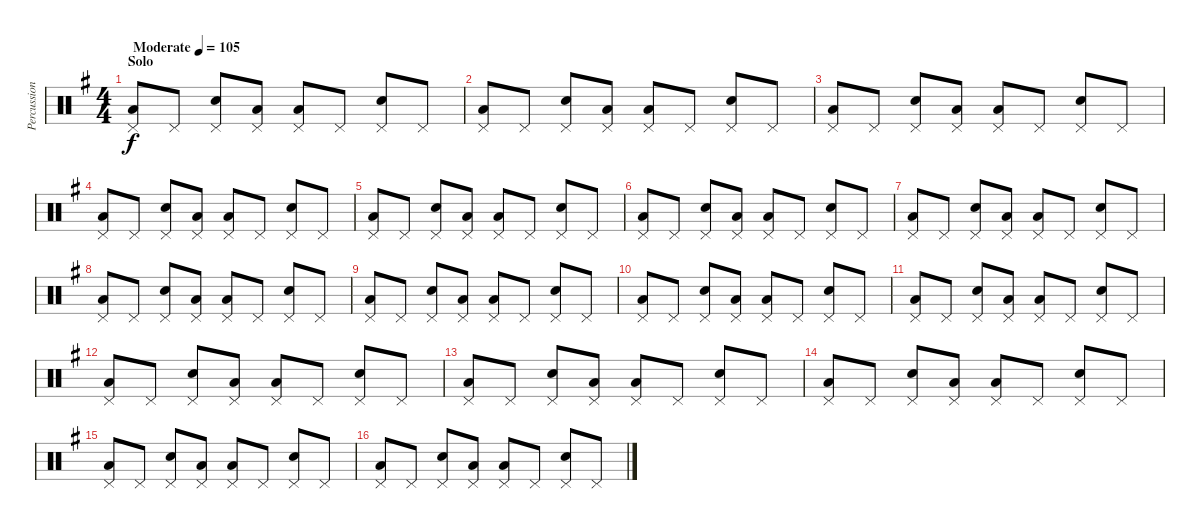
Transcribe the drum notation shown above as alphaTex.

\track ("Percussion" "Percussion") {instrument percussion}
\staff {score}
\articulation defaults
\ts (4 4)
\section ("" "Solo")
\tempo (105 "Moderate")
\clef neutral
\ks g
("Pedal Hi-Hat (hit)" "Low Floor Tom (hit)").8{dy f} "Pedal Hi-Hat (hit)".8 ("Pedal Hi-Hat (hit)" "Snare (hit) 2").8 ("Pedal Hi-Hat (hit)" "Low Floor Tom (hit)").8 ("Pedal Hi-Hat (hit)" "Low Floor Tom (hit)").8 "Pedal Hi-Hat (hit)".8 ("Pedal Hi-Hat (hit)" "Snare (hit) 2").8 "Pedal Hi-Hat (hit)".8 |
("Pedal Hi-Hat (hit)" "Low Floor Tom (hit)").8 "Pedal Hi-Hat (hit)".8 ("Pedal Hi-Hat (hit)" "Snare (hit) 2").8 ("Pedal Hi-Hat (hit)" "Low Floor Tom (hit)").8 ("Pedal Hi-Hat (hit)" "Low Floor Tom (hit)").8 "Pedal Hi-Hat (hit)".8 ("Pedal Hi-Hat (hit)" "Snare (hit) 2").8 "Pedal Hi-Hat (hit)".8 |
("Pedal Hi-Hat (hit)" "Low Floor Tom (hit)").8 "Pedal Hi-Hat (hit)".8 ("Pedal Hi-Hat (hit)" "Snare (hit) 2").8 ("Pedal Hi-Hat (hit)" "Low Floor Tom (hit)").8 ("Pedal Hi-Hat (hit)" "Low Floor Tom (hit)").8 "Pedal Hi-Hat (hit)".8 ("Pedal Hi-Hat (hit)" "Snare (hit) 2").8 "Pedal Hi-Hat (hit)".8 |
("Pedal Hi-Hat (hit)" "Low Floor Tom (hit)").8 "Pedal Hi-Hat (hit)".8 ("Pedal Hi-Hat (hit)" "Snare (hit) 2").8 ("Pedal Hi-Hat (hit)" "Low Floor Tom (hit)").8 ("Pedal Hi-Hat (hit)" "Low Floor Tom (hit)").8 "Pedal Hi-Hat (hit)".8 ("Pedal Hi-Hat (hit)" "Snare (hit) 2").8 "Pedal Hi-Hat (hit)".8 |
("Pedal Hi-Hat (hit)" "Low Floor Tom (hit)").8 "Pedal Hi-Hat (hit)".8 ("Pedal Hi-Hat (hit)" "Snare (hit) 2").8 ("Pedal Hi-Hat (hit)" "Low Floor Tom (hit)").8 ("Pedal Hi-Hat (hit)" "Low Floor Tom (hit)").8 "Pedal Hi-Hat (hit)".8 ("Pedal Hi-Hat (hit)" "Snare (hit) 2").8 "Pedal Hi-Hat (hit)".8 |
("Pedal Hi-Hat (hit)" "Low Floor Tom (hit)").8 "Pedal Hi-Hat (hit)".8 ("Pedal Hi-Hat (hit)" "Snare (hit) 2").8 ("Pedal Hi-Hat (hit)" "Low Floor Tom (hit)").8 ("Pedal Hi-Hat (hit)" "Low Floor Tom (hit)").8 "Pedal Hi-Hat (hit)".8 ("Pedal Hi-Hat (hit)" "Snare (hit) 2").8 "Pedal Hi-Hat (hit)".8 |
("Pedal Hi-Hat (hit)" "Low Floor Tom (hit)").8 "Pedal Hi-Hat (hit)".8 ("Pedal Hi-Hat (hit)" "Snare (hit) 2").8 ("Pedal Hi-Hat (hit)" "Low Floor Tom (hit)").8 ("Pedal Hi-Hat (hit)" "Low Floor Tom (hit)").8 "Pedal Hi-Hat (hit)".8 ("Pedal Hi-Hat (hit)" "Snare (hit) 2").8 "Pedal Hi-Hat (hit)".8 |
("Pedal Hi-Hat (hit)" "Low Floor Tom (hit)").8 "Pedal Hi-Hat (hit)".8 ("Pedal Hi-Hat (hit)" "Snare (hit) 2").8 ("Pedal Hi-Hat (hit)" "Low Floor Tom (hit)").8 ("Pedal Hi-Hat (hit)" "Low Floor Tom (hit)").8 "Pedal Hi-Hat (hit)".8 ("Pedal Hi-Hat (hit)" "Snare (hit) 2").8 "Pedal Hi-Hat (hit)".8 |
("Pedal Hi-Hat (hit)" "Low Floor Tom (hit)").8 "Pedal Hi-Hat (hit)".8 ("Pedal Hi-Hat (hit)" "Snare (hit) 2").8 ("Pedal Hi-Hat (hit)" "Low Floor Tom (hit)").8 ("Pedal Hi-Hat (hit)" "Low Floor Tom (hit)").8 "Pedal Hi-Hat (hit)".8 ("Pedal Hi-Hat (hit)" "Snare (hit) 2").8 "Pedal Hi-Hat (hit)".8 |
("Pedal Hi-Hat (hit)" "Low Floor Tom (hit)").8 "Pedal Hi-Hat (hit)".8 ("Pedal Hi-Hat (hit)" "Snare (hit) 2").8 ("Pedal Hi-Hat (hit)" "Low Floor Tom (hit)").8 ("Pedal Hi-Hat (hit)" "Low Floor Tom (hit)").8 "Pedal Hi-Hat (hit)".8 ("Pedal Hi-Hat (hit)" "Snare (hit) 2").8 "Pedal Hi-Hat (hit)".8 |
("Pedal Hi-Hat (hit)" "Low Floor Tom (hit)").8 "Pedal Hi-Hat (hit)".8 ("Pedal Hi-Hat (hit)" "Snare (hit) 2").8 ("Pedal Hi-Hat (hit)" "Low Floor Tom (hit)").8 ("Pedal Hi-Hat (hit)" "Low Floor Tom (hit)").8 "Pedal Hi-Hat (hit)".8 ("Pedal Hi-Hat (hit)" "Snare (hit) 2").8 "Pedal Hi-Hat (hit)".8 |
("Pedal Hi-Hat (hit)" "Low Floor Tom (hit)").8 "Pedal Hi-Hat (hit)".8 ("Pedal Hi-Hat (hit)" "Snare (hit) 2").8 ("Pedal Hi-Hat (hit)" "Low Floor Tom (hit)").8 ("Pedal Hi-Hat (hit)" "Low Floor Tom (hit)").8 "Pedal Hi-Hat (hit)".8 ("Pedal Hi-Hat (hit)" "Snare (hit) 2").8 "Pedal Hi-Hat (hit)".8 |
("Pedal Hi-Hat (hit)" "Low Floor Tom (hit)").8 "Pedal Hi-Hat (hit)".8 ("Pedal Hi-Hat (hit)" "Snare (hit) 2").8 ("Pedal Hi-Hat (hit)" "Low Floor Tom (hit)").8 ("Pedal Hi-Hat (hit)" "Low Floor Tom (hit)").8 "Pedal Hi-Hat (hit)".8 ("Pedal Hi-Hat (hit)" "Snare (hit) 2").8 "Pedal Hi-Hat (hit)".8 |
("Pedal Hi-Hat (hit)" "Low Floor Tom (hit)").8 "Pedal Hi-Hat (hit)".8 ("Pedal Hi-Hat (hit)" "Snare (hit) 2").8 ("Pedal Hi-Hat (hit)" "Low Floor Tom (hit)").8 ("Pedal Hi-Hat (hit)" "Low Floor Tom (hit)").8 "Pedal Hi-Hat (hit)".8 ("Pedal Hi-Hat (hit)" "Snare (hit) 2").8 "Pedal Hi-Hat (hit)".8 |
("Pedal Hi-Hat (hit)" "Low Floor Tom (hit)").8 "Pedal Hi-Hat (hit)".8 ("Pedal Hi-Hat (hit)" "Snare (hit) 2").8 ("Pedal Hi-Hat (hit)" "Low Floor Tom (hit)").8 ("Pedal Hi-Hat (hit)" "Low Floor Tom (hit)").8 "Pedal Hi-Hat (hit)".8 ("Pedal Hi-Hat (hit)" "Snare (hit) 2").8 "Pedal Hi-Hat (hit)".8 |
("Pedal Hi-Hat (hit)" "Low Floor Tom (hit)").8 "Pedal Hi-Hat (hit)".8 ("Pedal Hi-Hat (hit)" "Snare (hit) 2").8 ("Pedal Hi-Hat (hit)" "Low Floor Tom (hit)").8 ("Pedal Hi-Hat (hit)" "Low Floor Tom (hit)").8 "Pedal Hi-Hat (hit)".8 ("Pedal Hi-Hat (hit)" "Snare (hit) 2").8 "Pedal Hi-Hat (hit)".8
